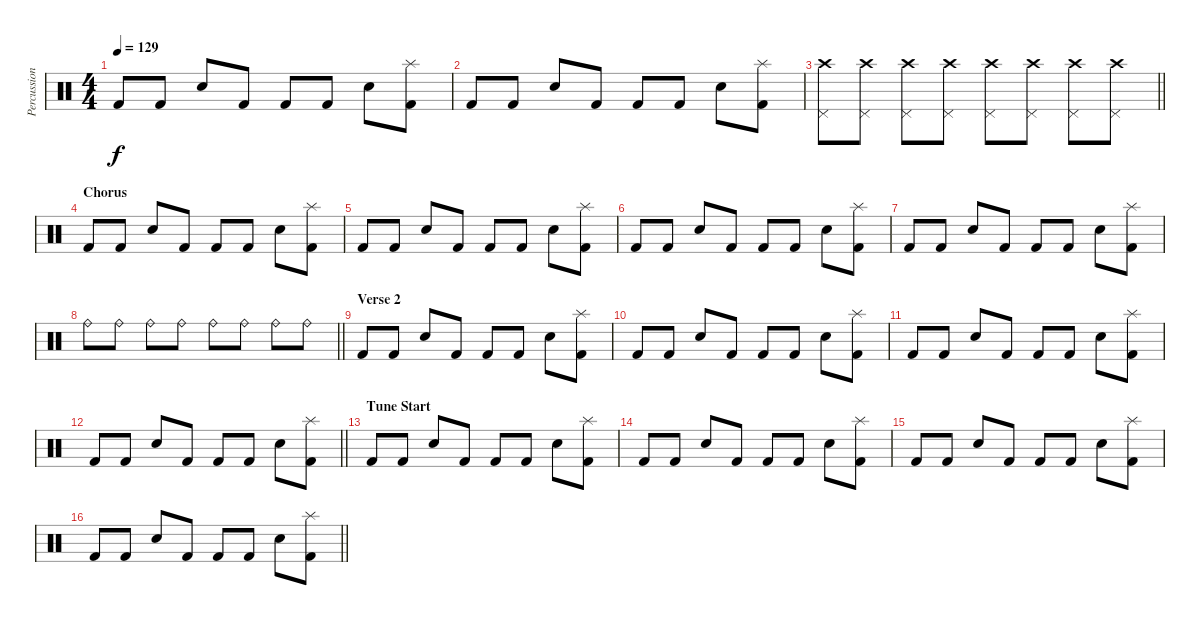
\track ("Percussion" "Percussion") {instrument percussion}
\staff {score}
\articulation defaults
\ts (4 4)
\tempo 129
\clef neutral
\ks c "Kick (hit) 2".8{dy f} "Kick (hit) 2".8 "Hand Clap (hit)".8 "Kick (hit) 2".8 "Kick (hit) 2".8 "Kick (hit) 2".8 "Hand Clap (hit)".8
("Splash (hit)" "Kick (hit) 2").8 |
"Kick (hit) 2".8 "Kick (hit) 2".8 "Hand Clap (hit)".8 "Kick (hit) 2".8 "Kick (hit) 2".8 "Kick (hit) 2".8 "Hand Clap (hit)".8 ("Splash (hit)" "Kick (hit) 2").8 |
\barLineRight lightlight
("Pedal Hi-Hat (hit)" "Crash high (hit)").8 ("Pedal Hi-Hat (hit)" "Crash high (hit)").8 ("Pedal Hi-Hat (hit)" "Crash high (hit)").8 ("Pedal Hi-Hat (hit)" "Crash high (hit)").8 ("Pedal Hi-Hat (hit)" "Crash high (hit)").8 ("Pedal Hi-Hat (hit)" "Crash high (hit)").8 ("Pedal Hi-Hat (hit)" "Crash high (hit)").8 ("Pedal Hi-Hat (hit)" "Crash high (hit)").8 |
\section ("" "Chorus")
"Kick (hit) 2".8 "Kick (hit) 2".8 "Hand Clap (hit)".8 "Kick (hit) 2".8 "Kick (hit) 2".8 "Kick (hit) 2".8 "Hand Clap (hit)".8 ("Splash (hit)" "Kick (hit) 2").8 |
"Kick (hit) 2".8 "Kick (hit) 2".8 "Hand Clap (hit)".8 "Kick (hit) 2".8 "Kick (hit) 2".8 "Kick (hit) 2".8 "Hand Clap (hit)".8 ("Splash (hit)" "Kick (hit) 2").8 |
"Kick (hit) 2".8 "Kick (hit) 2".8 "Hand Clap (hit)".8 "Kick (hit) 2".8 "Kick (hit) 2".8 "Kick (hit) 2".8 "Hand Clap (hit)".8 ("Splash (hit)" "Kick (hit) 2").8 |
"Kick (hit) 2".8 "Kick (hit) 2".8 "Hand Clap (hit)".8 "Kick (hit) 2".8 "Kick (hit) 2".8 "Kick (hit) 2".8 "Hand Clap (hit)".8 ("Splash (hit)" "Kick (hit) 2").8 |
\barLineRight lightlight "Ride (bell)".8 "Ride (bell)".8 "Ride (bell)".8 "Ride (bell)".8 "Ride (bell)".8 "Ride (bell)".8 "Ride (bell)".8 "Ride (bell)".8
|
\section ("" "Verse 2")
"Kick (hit) 2".8 "Kick (hit) 2".8 "Hand Clap (hit)".8 "Kick (hit) 2".8 "Kick (hit) 2".8 "Kick (hit) 2".8 "Hand Clap (hit)".8 ("Splash (hit)" "Kick (hit) 2").8 |
"Kick (hit) 2".8 "Kick (hit) 2".8 "Hand Clap (hit)".8 "Kick (hit) 2".8 "Kick (hit) 2".8 "Kick (hit) 2".8 "Hand Clap (hit)".8 ("Splash (hit)" "Kick (hit) 2").8 |
"Kick (hit) 2".8 "Kick (hit) 2".8 "Hand Clap (hit)".8 "Kick (hit) 2".8 "Kick (hit) 2".8 "Kick (hit) 2".8 "Hand Clap (hit)".8 ("Splash (hit)" "Kick (hit) 2").8 |
\barLineRight lightlight "Kick (hit) 2".8 "Kick (hit) 2".8 "Hand Clap (hit)".8 "Kick (hit) 2".8 "Kick (hit) 2".8 "Kick (hit) 2".8 "Hand Clap (hit)".8
("Splash (hit)" "Kick (hit) 2").8 |
\section ("" "Tune Start")
"Kick (hit) 2".8 "Kick (hit) 2".8 "Hand Clap (hit)".8 "Kick (hit) 2".8 "Kick (hit) 2".8 "Kick (hit) 2".8 "Hand Clap (hit)".8 ("Splash (hit)" "Kick (hit) 2").8 |
"Kick (hit) 2".8 "Kick (hit) 2".8 "Hand Clap (hit)".8 "Kick (hit) 2".8 "Kick (hit) 2".8 "Kick (hit) 2".8 "Hand Clap (hit)".8 ("Splash (hit)" "Kick (hit) 2").8 |
"Kick (hit) 2".8 "Kick (hit) 2".8 "Hand Clap (hit)".8 "Kick (hit) 2".8 "Kick (hit) 2".8 "Kick (hit) 2".8 "Hand Clap (hit)".8 ("Splash (hit)" "Kick (hit) 2").8 |
\barLineRight lightlight "Kick (hit) 2".8 "Kick (hit) 2".8 "Hand Clap (hit)".8 "Kick (hit) 2".8 "Kick (hit) 2".8 "Kick (hit) 2".8 "Hand Clap (hit)".8
("Splash (hit)" "Kick (hit) 2").8
